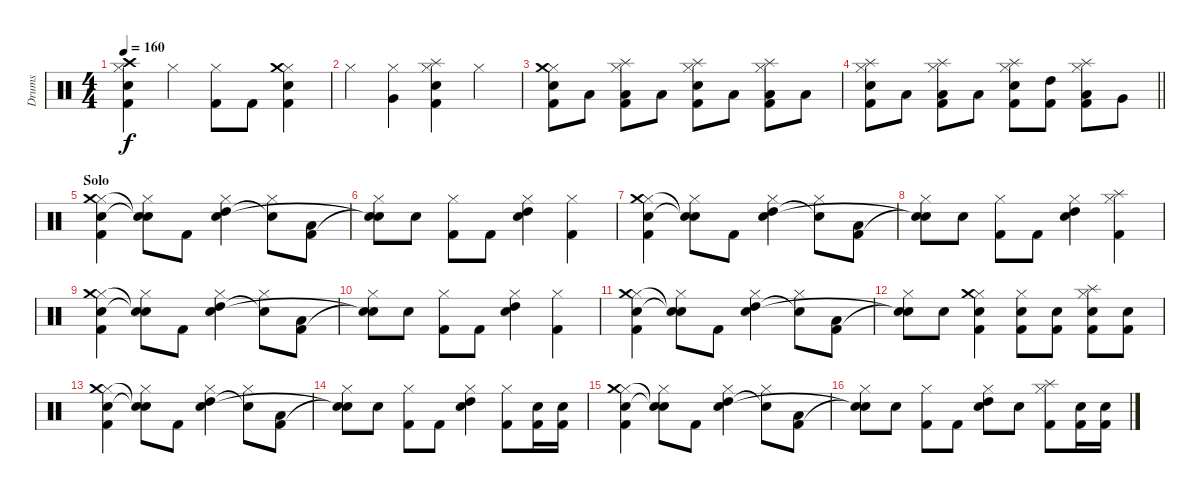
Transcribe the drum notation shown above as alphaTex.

\track ("Drums" "Drums") {instrument percussion}
\staff {score}
\articulation defaults
\ts (4 4)
\tempo 160
\clef neutral
\ks c
("Hi-Hat (closed)" "Crash high (hit)" "Snare (hit) 2" "Kick (hit) 2").4{dy f} "Hi-Hat (closed)".4 ("Hi-Hat (closed)" "Kick (hit) 2").8 "Kick (hit) 2".8 ("Hi-Hat (closed)" "Crash medium (hit)" "Snare (hit) 2" "Kick (hit) 2").4 |
"Hi-Hat (closed)".4 ("Hi-Hat (closed)" "Very Low Tom (hit)").4 ("Hi-Hat (closed)" "Splash (hit)" "Snare (hit) 2" "Kick (hit) 2").4 "Hi-Hat (closed)".4 |
("Hi-Hat (closed)" "Crash medium (hit)" "Snare (hit) 2" "Kick (hit) 2").8 "Low Floor Tom (hit)".8 ("Hi-Hat (closed)" "Splash (hit)" "Low Floor Tom (hit)" "Kick (hit) 2").8 "Low Floor Tom (hit)".8 ("Hi-Hat (closed)" "Splash (hit)" "Snare (hit) 2" "Kick (hit) 2").8 "Low Floor Tom (hit)".8 ("Hi-Hat (closed)" "Splash (hit)" "Low Floor Tom (hit)" "Kick (hit) 2").8 "Low Floor Tom (hit)".8 |
\barLineRight lightlight
("Hi-Hat (closed)" "Splash (hit)" "Snare (hit) 2" "Kick (hit) 2").8 "Low Floor Tom (hit)".8 ("Hi-Hat (closed)" "Splash (hit)" "Low Floor Tom (hit)" "Kick (hit) 2").8 "Low Floor Tom (hit)".8 ("Hi-Hat (closed)" "Splash (hit)" "Snare (hit) 2" "Kick (hit) 2").8 ("High Tom (hit)" "Kick (hit) 2").8 ("Hi-Hat (closed)" "Splash (hit)" "Low Tom (hit)" "Kick (hit) 2").8 "Very Low Tom (hit)".8 |
\section ("" "Solo")
("Hi-Hat (closed)" "Crash medium (hit)" "Snare (hit) 2" "Kick (hit) 2").4 ("Hi-Hat (closed)" "Snare (hit)"{t} "Snare (hit)"{t}).8 "Kick (hit) 2".8 ("Hi-Hat (closed)" "High Tom (hit)" "Snare (hit) 2").4 ("Hi-Hat (closed)" "Snare (hit)"{t}).8 ("Low Floor Tom (hit)" "Kick (hit) 2").8 |
("Hi-Hat (closed)" "Snare (hit)"{t} "Snare (hit)"{t}).8 "Snare (hit) 2".8 ("Hi-Hat (closed)" "Kick (hit) 2").8 "Kick (hit) 2".8 ("Hi-Hat (closed)" "High Tom (hit)" "Snare (hit) 2").4 ("Hi-Hat (closed)" "Kick (hit) 2").4 |
("Hi-Hat (closed)" "Crash medium (hit)" "Snare (hit) 2" "Kick (hit) 2").4 ("Hi-Hat (closed)" "Snare (hit)"{t} "Snare (hit)"{t}).8 "Kick (hit) 2".8 ("Hi-Hat (closed)" "High Tom (hit)" "Snare (hit) 2").4 ("Hi-Hat (closed)" "Snare (hit)"{t}).8 ("Low Floor Tom (hit)" "Kick (hit) 2").8 |
("Hi-Hat (closed)" "Snare (hit)"{t} "Snare (hit)"{t}).8 "Snare (hit) 2".8 ("Hi-Hat (closed)" "Kick (hit) 2").8 "Kick (hit) 2".8 ("Hi-Hat (closed)" "High Tom (hit)" "Snare (hit) 2").4 ("Hi-Hat (closed)" "Splash (hit)" "Kick (hit) 2").4 |
("Hi-Hat (closed)" "Crash medium (hit)" "Snare (hit) 2" "Kick (hit) 2").4 ("Hi-Hat (closed)" "Snare (hit)"{t} "Snare (hit)"{t}).8 "Kick (hit) 2".8 ("Hi-Hat (closed)" "High Tom (hit)" "Snare (hit) 2").4 ("Hi-Hat (closed)" "Snare (hit)"{t}).8 ("Low Floor Tom (hit)" "Kick (hit) 2").8 |
("Hi-Hat (closed)" "Snare (hit)"{t} "Snare (hit)"{t}).8 "Snare (hit) 2".8 ("Hi-Hat (closed)" "Kick (hit) 2").8 "Kick (hit) 2".8 ("Hi-Hat (closed)" "High Tom (hit)" "Snare (hit) 2").4 ("Hi-Hat (closed)" "Kick (hit) 2").4 |
("Hi-Hat (closed)" "Crash medium (hit)" "Snare (hit) 2" "Kick (hit) 2").4 ("Hi-Hat (closed)" "Snare (hit)"{t} "Snare (hit)"{t}).8 "Kick (hit) 2".8 ("Hi-Hat (closed)" "High Tom (hit)" "Snare (hit) 2").4 ("Hi-Hat (closed)" "Snare (hit)"{t}).8 ("Low Floor Tom (hit)" "Kick (hit) 2").8 |
("Hi-Hat (closed)" "Snare (hit)"{t} "Snare (hit)"{t}).8 "Snare (hit) 2".8 ("Hi-Hat (closed)" "Crash medium (hit)" "Snare (hit) 2" "Kick (hit) 2").4 ("Hi-Hat (closed)" "Snare (hit) 2" "Kick (hit) 2").8 ("Snare (hit) 2" "Kick (hit) 2").8 ("Hi-Hat (closed)" "Splash (hit)" "Snare (hit) 2" "Kick (hit) 2").8 ("Snare (hit) 2" "Kick (hit) 2").8 |
("Hi-Hat (closed)" "Crash medium (hit)" "Snare (hit) 2" "Kick (hit) 2").4 ("Hi-Hat (closed)" "Snare (hit)"{t} "Snare (hit)"{t}).8 "Kick (hit) 2".8 ("Hi-Hat (closed)" "High Tom (hit)" "Snare (hit) 2").4 ("Hi-Hat (closed)" "Snare (hit)"{t}).8 ("Low Floor Tom (hit)" "Kick (hit) 2").8 |
("Hi-Hat (closed)" "Snare (hit)"{t} "Snare (hit)"{t}).8 "Snare (hit) 2".8 ("Hi-Hat (closed)" "Kick (hit) 2").8 "Kick (hit) 2".8 ("Hi-Hat (closed)" "High Tom (hit)" "Snare (hit) 2").4 ("Hi-Hat (closed)" "Kick (hit) 2").8 ("Snare (hit) 2" "Kick (hit) 2").16 ("Snare (hit) 2" "Kick (hit) 2").16 |
("Hi-Hat (closed)" "Crash medium (hit)" "Snare (hit) 2" "Kick (hit) 2").4 ("Hi-Hat (closed)" "Snare (hit)"{t} "Snare (hit)"{t}).8 "Kick (hit) 2".8 ("Hi-Hat (closed)" "High Tom (hit)" "Snare (hit) 2").4 ("Hi-Hat (closed)" "Snare (hit)"{t}).8 ("Low Floor Tom (hit)" "Kick (hit) 2").8 |
("Hi-Hat (closed)" "Snare (hit)"{t} "Snare (hit)"{t}).8 "Snare (hit) 2".8 ("Hi-Hat (closed)" "Kick (hit) 2").8 "Kick (hit) 2".8 ("Hi-Hat (closed)" "High Tom (hit)" "Snare (hit) 2").8 "Snare (hit) 2".8 ("Hi-Hat (closed)" "Splash (hit)" "Kick (hit) 2").8 ("Snare (hit) 2" "Kick (hit) 2").16 ("Snare (hit) 2" "Kick (hit) 2").16
